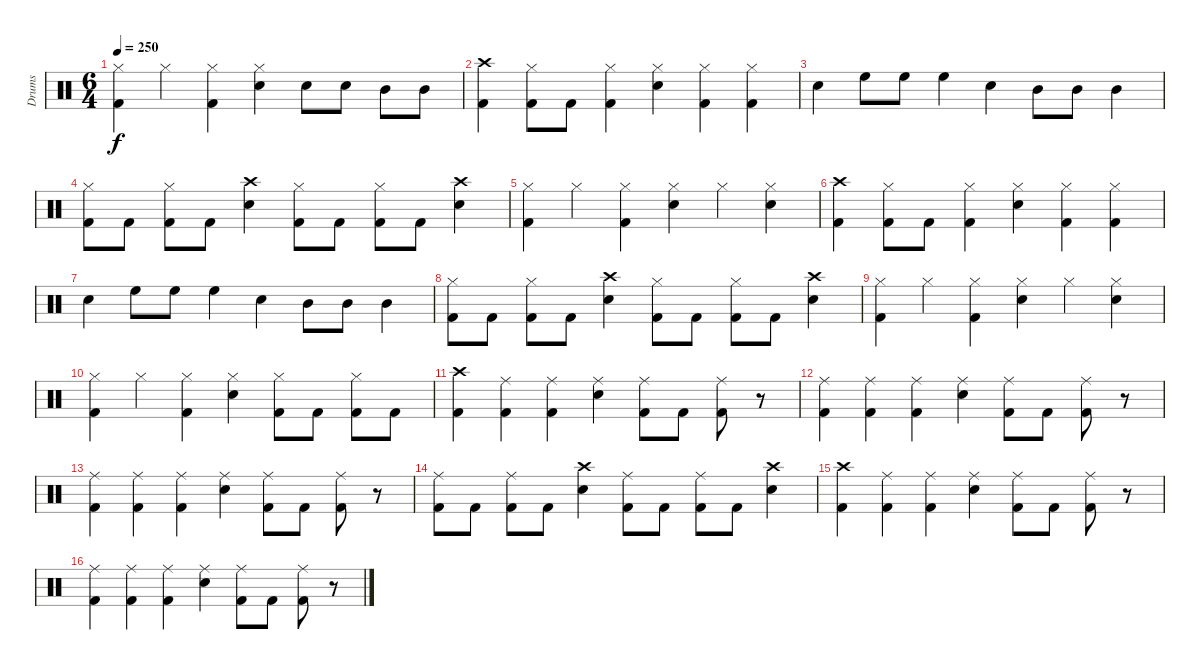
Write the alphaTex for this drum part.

\track ("Drums" "Drums") {instrument percussion}
\staff {score}
\articulation defaults
\ts (6 4)
\tempo 250
\clef neutral
\ks c
("Hi-Hat (closed)" "Kick (hit) 2").4{dy f} "Hi-Hat (closed)".4 ("Hi-Hat (closed)" "Kick (hit) 2").4 ("Hi-Hat (closed)" "Snare (hit) 2").4 "Snare (hit) 2".8 "Snare (hit) 2".8 "Mid Tom (hit)".8 "Mid Tom (hit)".8 |
("Crash high (hit)" "Kick (hit) 2").4 ("Hi-Hat (closed)" "Kick (hit) 2").8 "Kick (hit) 2".8 ("Hi-Hat (closed)" "Kick (hit) 2").4 ("Hi-Hat (closed)" "Snare (hit) 2").4 ("Hi-Hat (closed)" "Kick (hit) 2").4 ("Hi-Hat (closed)" "Kick (hit) 2").4 |
"Snare (hit) 2".4 "High Floor Tom (hit)".8 "High Floor Tom (hit)".8 "High Floor Tom (hit)".4 "Snare (hit) 2".4 "Mid Tom (hit)".8 "Mid Tom (hit)".8 "Mid Tom (hit)".4 |
("Hi-Hat (closed)" "Kick (hit) 2").8 "Kick (hit) 2".8 ("Hi-Hat (closed)" "Kick (hit) 2").8 "Kick (hit) 2".8 ("Crash high (hit)" "Snare (hit) 2").4 ("Hi-Hat (closed)" "Kick (hit) 2").8 "Kick (hit) 2".8 ("Hi-Hat (closed)" "Kick (hit) 2").8 "Kick (hit) 2".8 ("Crash high (hit)" "Snare (hit) 2").4 |
("Hi-Hat (closed)" "Kick (hit) 2").4 "Hi-Hat (closed)".4 ("Hi-Hat (closed)" "Kick (hit) 2").4 ("Hi-Hat (closed)" "Snare (hit) 2").4 "Hi-Hat (closed)".4 ("Hi-Hat (closed)" "Snare (hit) 2").4 |
("Crash high (hit)" "Kick (hit) 2").4 ("Hi-Hat (closed)" "Kick (hit) 2").8 "Kick (hit) 2".8 ("Hi-Hat (closed)" "Kick (hit) 2").4 ("Hi-Hat (closed)" "Snare (hit) 2").4 ("Hi-Hat (closed)" "Kick (hit) 2").4 ("Hi-Hat (closed)" "Kick (hit) 2").4 |
"Snare (hit) 2".4 "High Floor Tom (hit)".8 "High Floor Tom (hit)".8 "High Floor Tom (hit)".4 "Snare (hit) 2".4 "Mid Tom (hit)".8 "Mid Tom (hit)".8 "Mid Tom (hit)".4 |
("Hi-Hat (closed)" "Kick (hit) 2").8 "Kick (hit) 2".8 ("Hi-Hat (closed)" "Kick (hit) 2").8 "Kick (hit) 2".8 ("Crash high (hit)" "Snare (hit) 2").4 ("Hi-Hat (closed)" "Kick (hit) 2").8 "Kick (hit) 2".8 ("Hi-Hat (closed)" "Kick (hit) 2").8 "Kick (hit) 2".8 ("Crash high (hit)" "Snare (hit) 2").4 |
("Hi-Hat (closed)" "Kick (hit) 2").4 "Hi-Hat (closed)".4 ("Hi-Hat (closed)" "Kick (hit) 2").4 ("Hi-Hat (closed)" "Snare (hit) 2").4 "Hi-Hat (closed)".4 ("Hi-Hat (closed)" "Snare (hit) 2").4 |
("Hi-Hat (closed)" "Kick (hit) 2").4 "Hi-Hat (closed)".4 ("Hi-Hat (closed)" "Kick (hit) 2").4 ("Hi-Hat (closed)" "Snare (hit) 2").4 ("Hi-Hat (closed)" "Kick (hit) 2").8 "Kick (hit) 2".8 ("Hi-Hat (closed)" "Kick (hit) 2").8 "Kick (hit) 2".8 |
("Crash high (hit)" "Kick (hit) 2").4 ("Ride (middle)" "Kick (hit) 2").4 ("Ride (middle)" "Kick (hit) 2").4 ("Ride (middle)" "Snare (hit) 2").4 ("Ride (middle)" "Kick (hit) 2").8 "Kick (hit) 2".8 ("Ride (middle)" "Kick (hit) 2").8 r.8 |
("Ride (middle)" "Kick (hit) 2").4 ("Ride (middle)" "Kick (hit) 2").4 ("Ride (middle)" "Kick (hit) 2").4 ("Ride (middle)" "Snare (hit) 2").4 ("Ride (middle)" "Kick (hit) 2").8 "Kick (hit) 2".8 ("Ride (middle)" "Kick (hit) 2").8 r.8 |
("Ride (middle)" "Kick (hit) 2").4 ("Ride (middle)" "Kick (hit) 2").4 ("Ride (middle)" "Kick (hit) 2").4 ("Ride (middle)" "Snare (hit) 2").4 ("Ride (middle)" "Kick (hit) 2").8 "Kick (hit) 2".8 ("Ride (middle)" "Kick (hit) 2").8 r.8 |
("Ride (middle)" "Kick (hit) 2").8 "Kick (hit) 2".8 ("Ride (middle)" "Kick (hit) 2").8 "Kick (hit) 2".8 ("Crash high (hit)" "Snare (hit) 2").4 ("Ride (middle)" "Kick (hit) 2").8 "Kick (hit) 2".8 ("Ride (middle)" "Kick (hit) 2").8 "Kick (hit) 2".8 ("Crash high (hit)" "Snare (hit) 2").4 |
("Crash high (hit)" "Kick (hit) 2").4 ("Ride (middle)" "Kick (hit) 2").4 ("Ride (middle)" "Kick (hit) 2").4 ("Ride (middle)" "Snare (hit) 2").4 ("Ride (middle)" "Kick (hit) 2").8 "Kick (hit) 2".8 ("Ride (middle)" "Kick (hit) 2").8 r.8 |
("Ride (middle)" "Kick (hit) 2").4 ("Ride (middle)" "Kick (hit) 2").4 ("Ride (middle)" "Kick (hit) 2").4 ("Ride (middle)" "Snare (hit) 2").4 ("Ride (middle)" "Kick (hit) 2").8 "Kick (hit) 2".8 ("Ride (middle)" "Kick (hit) 2").8 r.8
